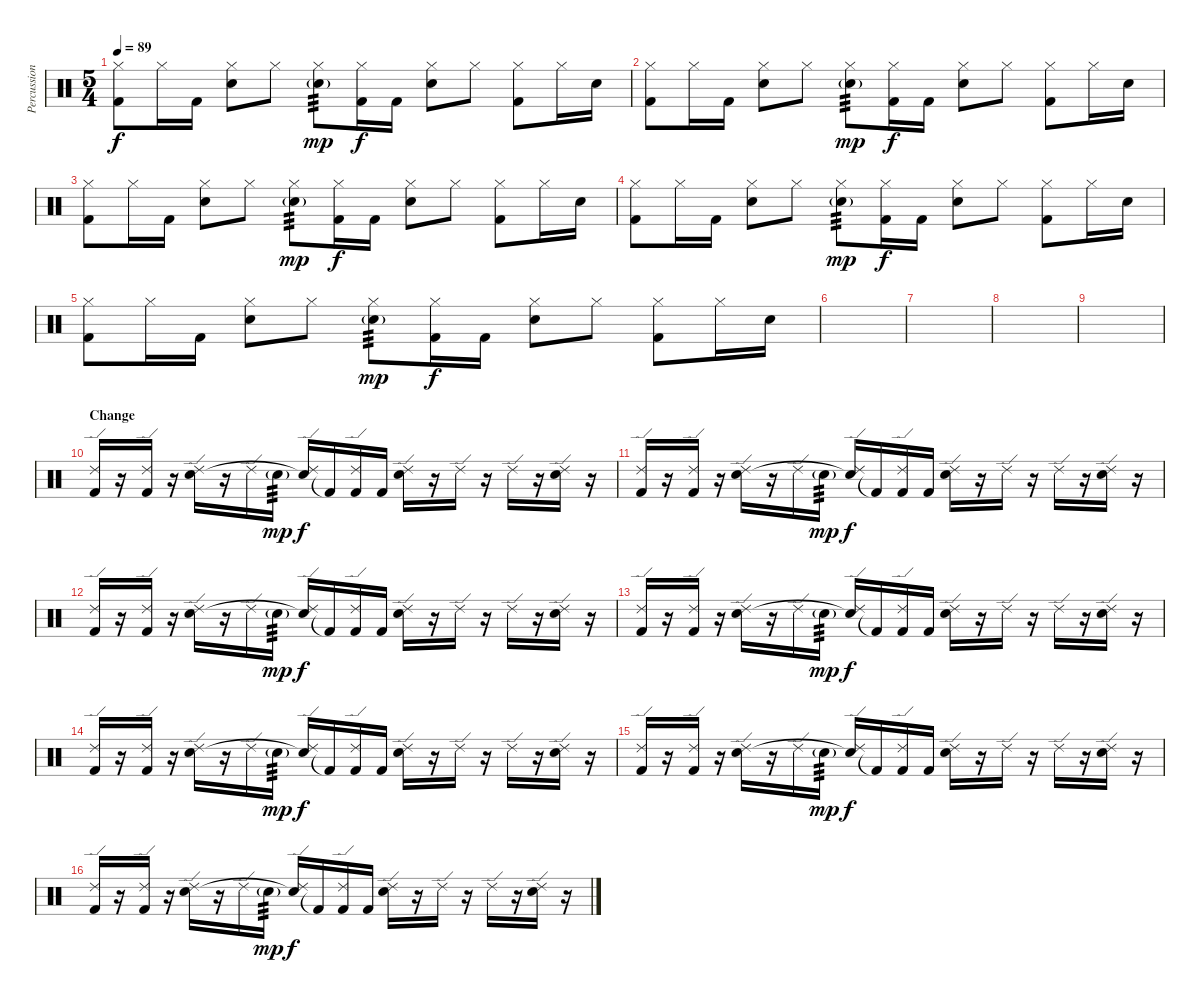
\track ("Percussion" "Percussion") {instrument percussion}
\staff {score}
\articulation defaults
\ts (5 4)
\tempo 89
\clef neutral
\ks c
("Hi-Hat (closed)" "Kick (hit) 2").8{dy f} "Hi-Hat (closed)".16 "Kick (hit) 2".16 ("Hi-Hat (closed)" "Snare (hit) 2").8 "Hi-Hat (closed)".8 ("Hi-Hat (closed)" "Snare (hit) 2"{g}).8{tp 3 dy mp} ("Hi-Hat (closed)" "Kick (hit) 2").16{dy f} "Kick (hit) 2".16 ("Hi-Hat (closed)" "Snare (hit) 2").8 "Hi-Hat (closed)".8 ("Hi-Hat (closed)" "Kick (hit) 2").8 "Hi-Hat (closed)".16 "Snare (hit) 2".16 |
("Hi-Hat (closed)" "Kick (hit) 2").8 "Hi-Hat (closed)".16 "Kick (hit) 2".16 ("Hi-Hat (closed)" "Snare (hit) 2").8 "Hi-Hat (closed)".8 ("Hi-Hat (closed)" "Snare (hit) 2"{g}).8{tp 3 dy mp} ("Hi-Hat (closed)" "Kick (hit) 2").16{dy f} "Kick (hit) 2".16 ("Hi-Hat (closed)" "Snare (hit) 2").8 "Hi-Hat (closed)".8 ("Hi-Hat (closed)" "Kick (hit) 2").8 "Hi-Hat (closed)".16 "Snare (hit) 2".16 |
("Hi-Hat (closed)" "Kick (hit) 2").8 "Hi-Hat (closed)".16 "Kick (hit) 2".16 ("Hi-Hat (closed)" "Snare (hit) 2").8 "Hi-Hat (closed)".8 ("Hi-Hat (closed)" "Snare (hit) 2"{g}).8{tp 3 dy mp} ("Hi-Hat (closed)" "Kick (hit) 2").16{dy f} "Kick (hit) 2".16 ("Hi-Hat (closed)" "Snare (hit) 2").8 "Hi-Hat (closed)".8 ("Hi-Hat (closed)" "Kick (hit) 2").8 "Hi-Hat (closed)".16 "Snare (hit) 2".16 |
("Hi-Hat (closed)" "Kick (hit) 2").8 "Hi-Hat (closed)".16 "Kick (hit) 2".16 ("Hi-Hat (closed)" "Snare (hit) 2").8 "Hi-Hat (closed)".8 ("Hi-Hat (closed)" "Snare (hit) 2"{g}).8{tp 3 dy mp} ("Hi-Hat (closed)" "Kick (hit) 2").16{dy f} "Kick (hit) 2".16 ("Hi-Hat (closed)" "Snare (hit) 2").8 "Hi-Hat (closed)".8 ("Hi-Hat (closed)" "Kick (hit) 2").8 "Hi-Hat (closed)".16 "Snare (hit) 2".16 |
("Hi-Hat (closed)" "Kick (hit) 2").8 "Hi-Hat (closed)".16 "Kick (hit) 2".16 ("Hi-Hat (closed)" "Snare (hit) 2").8 "Hi-Hat (closed)".8 ("Hi-Hat (closed)" "Snare (hit) 2"{g}).8{tp 3 dy mp} ("Hi-Hat (closed)" "Kick (hit) 2").16{dy f} "Kick (hit) 2".16 ("Hi-Hat (closed)" "Snare (hit) 2").8 "Hi-Hat (closed)".8 ("Hi-Hat (closed)" "Kick (hit) 2").8 "Hi-Hat (closed)".16 "Snare (hit) 2".16 |
|
|
|
|
\section ("" "Change")
("Ride (edge) 2" "Kick (hit) 2").16 r.16 ("Ride (edge) 2" "Kick (hit) 2").16 r.16 ("Ride (edge) 2" "Snare (hit) 2").16 r.16 "Ride (edge) 2".16 "Snare (hit) 2"{g}.16{tp 3 dy mp} ("Ride (edge) 2" "Snare (hit)"{t}).16{dy f} "Kick (hit) 2"{t}.16 ("Ride (edge) 2" "Kick (hit) 2").16 "Kick (hit) 2".16 ("Ride (edge) 2" "Snare (hit) 2").16 r.16 "Ride (edge) 2".16 r.16 "Ride (edge) 2".16 r.16 ("Ride (edge) 2" "Snare (hit) 2").16 r.16 |
("Ride (edge) 2" "Kick (hit) 2").16 r.16 ("Ride (edge) 2" "Kick (hit) 2").16 r.16 ("Ride (edge) 2" "Snare (hit) 2").16 r.16 "Ride (edge) 2".16 "Snare (hit) 2"{g}.16{tp 3 dy mp} ("Ride (edge) 2" "Snare (hit)"{t}).16{dy f} "Kick (hit) 2"{t}.16 ("Ride (edge) 2" "Kick (hit) 2").16 "Kick (hit) 2".16 ("Ride (edge) 2" "Snare (hit) 2").16 r.16 "Ride (edge) 2".16 r.16 "Ride (edge) 2".16 r.16 ("Ride (edge) 2" "Snare (hit) 2").16 r.16 |
("Ride (edge) 2" "Kick (hit) 2").16 r.16 ("Ride (edge) 2" "Kick (hit) 2").16 r.16 ("Ride (edge) 2" "Snare (hit) 2").16 r.16 "Ride (edge) 2".16 "Snare (hit) 2"{g}.16{tp 3 dy mp} ("Ride (edge) 2" "Snare (hit)"{t}).16{dy f} "Kick (hit) 2"{t}.16 ("Ride (edge) 2" "Kick (hit) 2").16 "Kick (hit) 2".16 ("Ride (edge) 2" "Snare (hit) 2").16 r.16 "Ride (edge) 2".16 r.16 "Ride (edge) 2".16 r.16 ("Ride (edge) 2" "Snare (hit) 2").16 r.16 |
("Ride (edge) 2" "Kick (hit) 2").16 r.16 ("Ride (edge) 2" "Kick (hit) 2").16 r.16 ("Ride (edge) 2" "Snare (hit) 2").16 r.16 "Ride (edge) 2".16 "Snare (hit) 2"{g}.16{tp 3 dy mp} ("Ride (edge) 2" "Snare (hit)"{t}).16{dy f} "Kick (hit) 2"{t}.16 ("Ride (edge) 2" "Kick (hit) 2").16 "Kick (hit) 2".16 ("Ride (edge) 2" "Snare (hit) 2").16 r.16 "Ride (edge) 2".16 r.16 "Ride (edge) 2".16 r.16 ("Ride (edge) 2" "Snare (hit) 2").16 r.16 |
("Ride (edge) 2" "Kick (hit) 2").16 r.16 ("Ride (edge) 2" "Kick (hit) 2").16 r.16 ("Ride (edge) 2" "Snare (hit) 2").16 r.16 "Ride (edge) 2".16 "Snare (hit) 2"{g}.16{tp 3 dy mp} ("Ride (edge) 2" "Snare (hit)"{t}).16{dy f} "Kick (hit) 2"{t}.16 ("Ride (edge) 2" "Kick (hit) 2").16 "Kick (hit) 2".16 ("Ride (edge) 2" "Snare (hit) 2").16 r.16 "Ride (edge) 2".16 r.16 "Ride (edge) 2".16 r.16 ("Ride (edge) 2" "Snare (hit) 2").16 r.16 |
("Ride (edge) 2" "Kick (hit) 2").16 r.16 ("Ride (edge) 2" "Kick (hit) 2").16 r.16 ("Ride (edge) 2" "Snare (hit) 2").16 r.16 "Ride (edge) 2".16 "Snare (hit) 2"{g}.16{tp 3 dy mp} ("Ride (edge) 2" "Snare (hit)"{t}).16{dy f} "Kick (hit) 2"{t}.16 ("Ride (edge) 2" "Kick (hit) 2").16 "Kick (hit) 2".16 ("Ride (edge) 2" "Snare (hit) 2").16 r.16 "Ride (edge) 2".16 r.16 "Ride (edge) 2".16 r.16 ("Ride (edge) 2" "Snare (hit) 2").16 r.16 |
("Ride (edge) 2" "Kick (hit) 2").16 r.16 ("Ride (edge) 2" "Kick (hit) 2").16 r.16 ("Ride (edge) 2" "Snare (hit) 2").16 r.16 "Ride (edge) 2".16 "Snare (hit) 2"{g}.16{tp 3 dy mp} ("Ride (edge) 2" "Snare (hit)"{t}).16{dy f} "Kick (hit) 2"{t}.16 ("Ride (edge) 2" "Kick (hit) 2").16 "Kick (hit) 2".16 ("Ride (edge) 2" "Snare (hit) 2").16 r.16 "Ride (edge) 2".16 r.16 "Ride (edge) 2".16 r.16 ("Ride (edge) 2" "Snare (hit) 2").16 r.16
